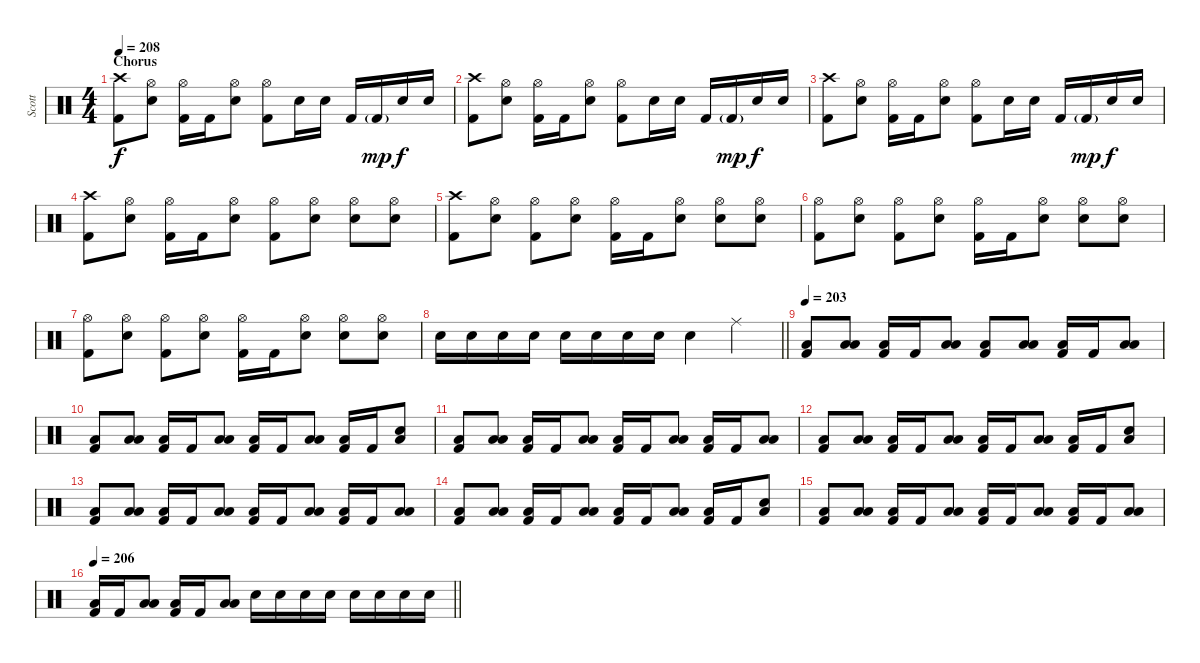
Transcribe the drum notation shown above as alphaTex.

\track ("Scott" "Scott") {instrument percussion}
\staff {score}
\articulation defaults
\ts (4 4)
\section ("" "Chorus")
\tempo 208
\clef neutral
\ks c
("Crash high (hit)" "Kick (hit) 2").8{dy f} ("Hi-Hat (open)" "Electric Snare (hit)").8 ("Hi-Hat (open)" "Kick (hit) 2").16 "Kick (hit) 2".16 ("Hi-Hat (open)" "Electric Snare (hit)").8 ("Hi-Hat (open)" "Kick (hit) 2").8 "Electric Snare (hit)".16 "Electric Snare (hit)".16 "Kick (hit) 2".16 "Kick (hit) 2"{g}.16{dy mp} "Electric Snare (hit)".16{dy f} "Electric Snare (hit)".16 |
("Crash high (hit)" "Kick (hit) 2").8 ("Hi-Hat (open)" "Electric Snare (hit)").8 ("Hi-Hat (open)" "Kick (hit) 2").16 "Kick (hit) 2".16 ("Hi-Hat (open)" "Electric Snare (hit)").8 ("Hi-Hat (open)" "Kick (hit) 2").8 "Electric Snare (hit)".16 "Electric Snare (hit)".16 "Kick (hit) 2".16 "Kick (hit) 2"{g}.16{dy mp} "Electric Snare (hit)".16{dy f} "Electric Snare (hit)".16 |
("Crash high (hit)" "Kick (hit) 2").8 ("Hi-Hat (open)" "Electric Snare (hit)").8 ("Hi-Hat (open)" "Kick (hit) 2").16 "Kick (hit) 2".16 ("Hi-Hat (open)" "Electric Snare (hit)").8 ("Hi-Hat (open)" "Kick (hit) 2").8 "Electric Snare (hit)".16 "Electric Snare (hit)".16 "Kick (hit) 2".16 "Kick (hit) 2"{g}.16{dy mp} "Electric Snare (hit)".16{dy f} "Electric Snare (hit)".16 |
("Crash high (hit)" "Kick (hit) 2").8 ("Hi-Hat (open)" "Electric Snare (hit)").8 ("Hi-Hat (open)" "Kick (hit) 2").16 "Kick (hit) 2".16 ("Hi-Hat (open)" "Electric Snare (hit)").8 ("Hi-Hat (open)" "Kick (hit) 2").8 ("Hi-Hat (open)" "Electric Snare (hit)").8 ("Hi-Hat (open)" "Electric Snare (hit)").8 ("Hi-Hat (open)" "Electric Snare (hit)").8 |
("Crash high (hit)" "Kick (hit) 2").8 ("Hi-Hat (open)" "Electric Snare (hit)").8 ("Hi-Hat (open)" "Kick (hit) 2").8 ("Hi-Hat (open)" "Electric Snare (hit)").8 ("Hi-Hat (open)" "Kick (hit) 2").16 "Kick (hit) 2".16 ("Hi-Hat (open)" "Electric Snare (hit)").8 ("Hi-Hat (open)" "Electric Snare (hit)").8 ("Hi-Hat (open)" "Electric Snare (hit)").8 |
("Hi-Hat (open)" "Kick (hit) 2").8 ("Hi-Hat (open)" "Electric Snare (hit)").8 ("Hi-Hat (open)" "Kick (hit) 2").8 ("Hi-Hat (open)" "Electric Snare (hit)").8 ("Hi-Hat (open)" "Kick (hit) 2").16 "Kick (hit) 2".16 ("Hi-Hat (open)" "Electric Snare (hit)").8 ("Hi-Hat (open)" "Electric Snare (hit)").8 ("Hi-Hat (open)" "Electric Snare (hit)").8 |
("Hi-Hat (open)" "Kick (hit) 2").8 ("Hi-Hat (open)" "Electric Snare (hit)").8 ("Hi-Hat (open)" "Kick (hit) 2").8 ("Hi-Hat (open)" "Electric Snare (hit)").8 ("Hi-Hat (open)" "Kick (hit) 2").16 "Kick (hit) 2".16 ("Hi-Hat (open)" "Electric Snare (hit)").8 ("Hi-Hat (open)" "Electric Snare (hit)").8 ("Hi-Hat (open)" "Electric Snare (hit)").8 |
\barLineRight lightlight "Electric Snare (hit)".16 "Electric Snare (hit)".16 "Electric Snare (hit)".16 "Electric Snare (hit)".16 "Electric Snare (hit)".16 "Electric Snare (hit)".16 "Electric Snare (hit)".16 "Electric Snare (hit)".16 "Electric Snare (hit)".4 "Ride (middle)".4
|
\section ("" "")
\tempo 203
("Low Floor Tom (hit)" "Kick (hit) 2").8 ("Low Tom (hit)" "Low Floor Tom (hit)").8 ("Low Floor Tom (hit)" "Kick (hit) 2").16 "Kick (hit) 2".16 ("Low Tom (hit)" "Low Floor Tom (hit)").8 ("Low Floor Tom (hit)" "Kick (hit) 2").8 ("Low Tom (hit)" "Low Floor Tom (hit)").8 ("Low Floor Tom (hit)" "Kick (hit) 2").16 "Kick (hit) 2".16 ("Low Tom (hit)" "Low Floor Tom (hit)").8 |
("Low Floor Tom (hit)" "Kick (hit) 2").8 ("Low Tom (hit)" "Low Floor Tom (hit)").8 ("Low Floor Tom (hit)" "Kick (hit) 2").16 "Kick (hit) 2".16 ("Low Tom (hit)" "Low Floor Tom (hit)").8 ("Low Floor Tom (hit)" "Kick (hit) 2").16 "Kick (hit) 2".16 ("Low Tom (hit)" "Low Floor Tom (hit)").8 ("Low Floor Tom (hit)" "Kick (hit) 2").16 "Kick (hit) 2".16 ("Electric Snare (hit)" "Low Floor Tom (hit)").8 |
("Low Floor Tom (hit)" "Kick (hit) 2").8 ("Low Tom (hit)" "Low Floor Tom (hit)").8 ("Low Floor Tom (hit)" "Kick (hit) 2").16 "Kick (hit) 2".16 ("Low Tom (hit)" "Low Floor Tom (hit)").8 ("Low Floor Tom (hit)" "Kick (hit) 2").16 "Kick (hit) 2".16 ("Low Tom (hit)" "Low Floor Tom (hit)").8 ("Low Floor Tom (hit)" "Kick (hit) 2").16 "Kick (hit) 2".16 ("Low Tom (hit)" "Low Floor Tom (hit)").8 |
("Low Floor Tom (hit)" "Kick (hit) 2").8 ("Low Tom (hit)" "Low Floor Tom (hit)").8 ("Low Floor Tom (hit)" "Kick (hit) 2").16 "Kick (hit) 2".16 ("Low Tom (hit)" "Low Floor Tom (hit)").8 ("Low Floor Tom (hit)" "Kick (hit) 2").16 "Kick (hit) 2".16 ("Low Tom (hit)" "Low Floor Tom (hit)").8 ("Low Floor Tom (hit)" "Kick (hit) 2").16 "Kick (hit) 2".16 ("Electric Snare (hit)" "Low Floor Tom (hit)").8 |
("Low Floor Tom (hit)" "Kick (hit) 2").8 ("Low Tom (hit)" "Low Floor Tom (hit)").8 ("Low Floor Tom (hit)" "Kick (hit) 2").16 "Kick (hit) 2".16 ("Low Tom (hit)" "Low Floor Tom (hit)").8 ("Low Floor Tom (hit)" "Kick (hit) 2").16 "Kick (hit) 2".16 ("Low Tom (hit)" "Low Floor Tom (hit)").8 ("Low Floor Tom (hit)" "Kick (hit) 2").16 "Kick (hit) 2".16 ("Low Tom (hit)" "Low Floor Tom (hit)").8 |
("Low Floor Tom (hit)" "Kick (hit) 2").8 ("Low Tom (hit)" "Low Floor Tom (hit)").8 ("Low Floor Tom (hit)" "Kick (hit) 2").16 "Kick (hit) 2".16 ("Low Tom (hit)" "Low Floor Tom (hit)").8 ("Low Floor Tom (hit)" "Kick (hit) 2").16 "Kick (hit) 2".16 ("Low Tom (hit)" "Low Floor Tom (hit)").8 ("Low Floor Tom (hit)" "Kick (hit) 2").16 "Kick (hit) 2".16 ("Electric Snare (hit)" "Low Floor Tom (hit)").8 |
("Low Floor Tom (hit)" "Kick (hit) 2").8 ("Low Tom (hit)" "Low Floor Tom (hit)").8 ("Low Floor Tom (hit)" "Kick (hit) 2").16 "Kick (hit) 2".16 ("Low Tom (hit)" "Low Floor Tom (hit)").8 ("Low Floor Tom (hit)" "Kick (hit) 2").16 "Kick (hit) 2".16 ("Low Tom (hit)" "Low Floor Tom (hit)").8 ("Low Floor Tom (hit)" "Kick (hit) 2").16 "Kick (hit) 2".16 ("Low Tom (hit)" "Low Floor Tom (hit)").8 |
\tempo 206
\barLineRight lightlight
("Low Floor Tom (hit)" "Kick (hit) 2").16 "Kick (hit) 2".16 ("Low Tom (hit)" "Low Floor Tom (hit)").8 ("Low Floor Tom (hit)" "Kick (hit) 2").16 "Kick (hit) 2".16 ("Low Tom (hit)" "Low Floor Tom (hit)").8 "Electric Snare (hit)".16 "Electric Snare (hit)".16 "Electric Snare (hit)".16 "Electric Snare (hit)".16 "Electric Snare (hit)".16 "Electric Snare (hit)".16 "Electric Snare (hit)".16 "Electric Snare (hit)".16
